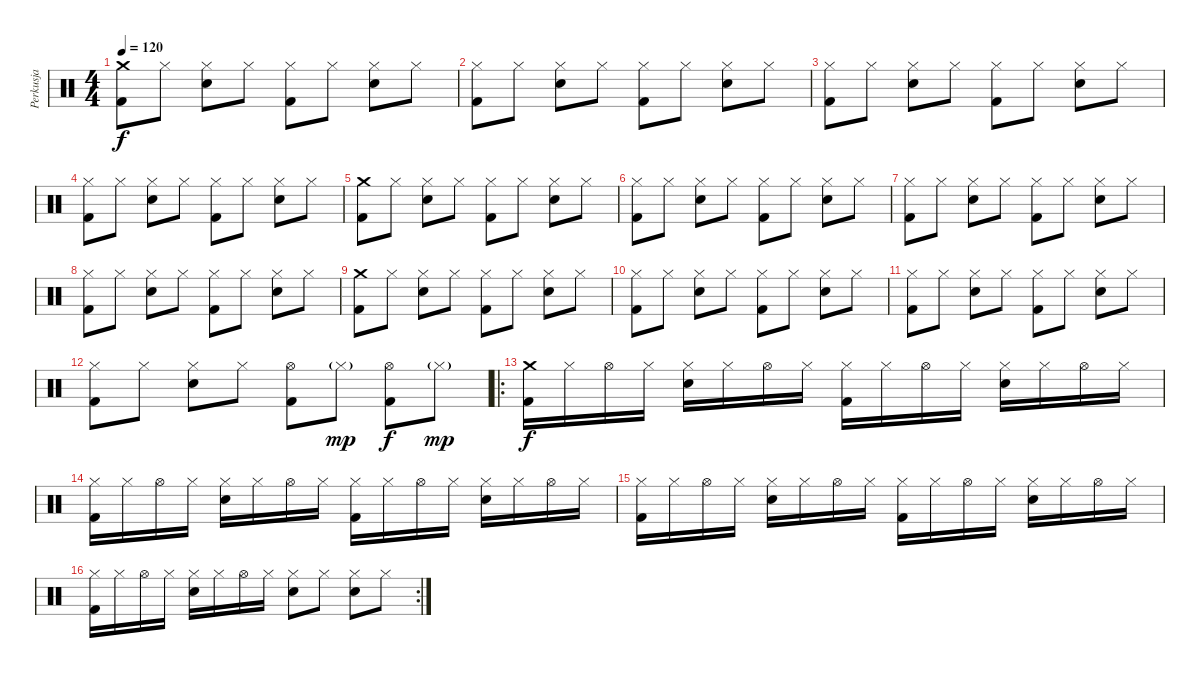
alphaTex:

\track ("Perkusja" "Perkusja") {instrument percussion}
\staff {score}
\articulation defaults
\ts (4 4)
\tempo 120
\clef neutral
\ks c
("Crash medium (hit)" "Kick (hit) 2").8{dy f} "Hi-Hat (closed)".8 ("Hi-Hat (closed)" "Snare (hit) 2").8 "Hi-Hat (closed)".8 ("Hi-Hat (closed)" "Kick (hit) 2").8 "Hi-Hat (closed)".8 ("Hi-Hat (closed)" "Snare (hit) 2").8 "Hi-Hat (closed)".8 |
("Hi-Hat (closed)" "Kick (hit) 2").8 "Hi-Hat (closed)".8 ("Hi-Hat (closed)" "Snare (hit) 2").8 "Hi-Hat (closed)".8 ("Hi-Hat (closed)" "Kick (hit) 2").8 "Hi-Hat (closed)".8 ("Hi-Hat (closed)" "Snare (hit) 2").8 "Hi-Hat (closed)".8 |
("Hi-Hat (closed)" "Kick (hit) 2").8 "Hi-Hat (closed)".8 ("Hi-Hat (closed)" "Snare (hit) 2").8 "Hi-Hat (closed)".8 ("Hi-Hat (closed)" "Kick (hit) 2").8 "Hi-Hat (closed)".8 ("Hi-Hat (closed)" "Snare (hit) 2").8 "Hi-Hat (closed)".8 |
("Hi-Hat (closed)" "Kick (hit) 2").8 "Hi-Hat (closed)".8 ("Hi-Hat (closed)" "Snare (hit) 2").8 "Hi-Hat (closed)".8 ("Hi-Hat (closed)" "Kick (hit) 2").8 "Hi-Hat (closed)".8 ("Hi-Hat (closed)" "Snare (hit) 2").8 "Hi-Hat (closed)".8 |
("Crash medium (hit)" "Kick (hit) 2").8 "Hi-Hat (closed)".8 ("Hi-Hat (closed)" "Snare (hit) 2").8 "Hi-Hat (closed)".8 ("Hi-Hat (closed)" "Kick (hit) 2").8 "Hi-Hat (closed)".8 ("Hi-Hat (closed)" "Snare (hit) 2").8 "Hi-Hat (closed)".8 |
("Hi-Hat (closed)" "Kick (hit) 2").8 "Hi-Hat (closed)".8 ("Hi-Hat (closed)" "Snare (hit) 2").8 "Hi-Hat (closed)".8 ("Hi-Hat (closed)" "Kick (hit) 2").8 "Hi-Hat (closed)".8 ("Hi-Hat (closed)" "Snare (hit) 2").8 "Hi-Hat (closed)".8 |
("Hi-Hat (closed)" "Kick (hit) 2").8 "Hi-Hat (closed)".8 ("Hi-Hat (closed)" "Snare (hit) 2").8 "Hi-Hat (closed)".8 ("Hi-Hat (closed)" "Kick (hit) 2").8 "Hi-Hat (closed)".8 ("Hi-Hat (closed)" "Snare (hit) 2").8 "Hi-Hat (closed)".8 |
("Hi-Hat (closed)" "Kick (hit) 2").8 "Hi-Hat (closed)".8 ("Hi-Hat (closed)" "Snare (hit) 2").8 "Hi-Hat (closed)".8 ("Hi-Hat (closed)" "Kick (hit) 2").8 "Hi-Hat (closed)".8 ("Hi-Hat (closed)" "Snare (hit) 2").8 "Hi-Hat (closed)".8 |
("Crash medium (hit)" "Kick (hit) 2").8 "Hi-Hat (closed)".8 ("Hi-Hat (closed)" "Snare (hit) 2").8 "Hi-Hat (closed)".8 ("Hi-Hat (closed)" "Kick (hit) 2").8 "Hi-Hat (closed)".8 ("Hi-Hat (closed)" "Snare (hit) 2").8 "Hi-Hat (closed)".8 |
("Hi-Hat (closed)" "Kick (hit) 2").8 "Hi-Hat (closed)".8 ("Hi-Hat (closed)" "Snare (hit) 2").8 "Hi-Hat (closed)".8 ("Hi-Hat (closed)" "Kick (hit) 2").8 "Hi-Hat (closed)".8 ("Hi-Hat (closed)" "Snare (hit) 2").8 "Hi-Hat (closed)".8 |
("Hi-Hat (closed)" "Kick (hit) 2").8 "Hi-Hat (closed)".8 ("Hi-Hat (closed)" "Snare (hit) 2").8 "Hi-Hat (closed)".8 ("Hi-Hat (closed)" "Kick (hit) 2").8 "Hi-Hat (closed)".8 ("Hi-Hat (closed)" "Snare (hit) 2").8 "Hi-Hat (closed)".8 |
("Hi-Hat (closed)" "Kick (hit) 2").8 "Hi-Hat (closed)".8 ("Hi-Hat (closed)" "Snare (hit) 2").8 "Hi-Hat (closed)".8 ("Hi-Hat (open)" "Kick (hit) 2").8 "Hi-Hat (closed)"{g}.8{dy mp} ("Hi-Hat (open)" "Kick (hit) 2").8{dy f} "Hi-Hat (closed)"{g}.8{dy mp} |
\ro
("Crash medium (hit)" "Kick (hit) 2").16{dy f} "Hi-Hat (closed)".16 "Hi-Hat (open)".16 "Hi-Hat (closed)".16 ("Hi-Hat (closed)" "Snare (hit) 2").16 "Hi-Hat (closed)".16 "Hi-Hat (open)".16 "Hi-Hat (closed)".16 ("Hi-Hat (closed)" "Kick (hit) 2").16 "Hi-Hat (closed)".16 "Hi-Hat (open)".16 "Hi-Hat (closed)".16 ("Hi-Hat (closed)" "Snare (hit) 2").16 "Hi-Hat (closed)".16 "Hi-Hat (open)".16 "Hi-Hat (closed)".16 |
("Hi-Hat (closed)" "Kick (hit) 2").16 "Hi-Hat (closed)".16 "Hi-Hat (open)".16 "Hi-Hat (closed)".16 ("Hi-Hat (closed)" "Snare (hit) 2").16 "Hi-Hat (closed)".16 "Hi-Hat (open)".16 "Hi-Hat (closed)".16 ("Hi-Hat (closed)" "Kick (hit) 2").16 "Hi-Hat (closed)".16 "Hi-Hat (open)".16 "Hi-Hat (closed)".16 ("Hi-Hat (closed)" "Snare (hit) 2").16 "Hi-Hat (closed)".16 "Hi-Hat (open)".16 "Hi-Hat (closed)".16 |
("Hi-Hat (closed)" "Kick (hit) 2").16 "Hi-Hat (closed)".16 "Hi-Hat (open)".16 "Hi-Hat (closed)".16 ("Hi-Hat (closed)" "Snare (hit) 2").16 "Hi-Hat (closed)".16 "Hi-Hat (open)".16 "Hi-Hat (closed)".16 ("Hi-Hat (closed)" "Kick (hit) 2").16 "Hi-Hat (closed)".16 "Hi-Hat (open)".16 "Hi-Hat (closed)".16 ("Hi-Hat (closed)" "Snare (hit) 2").16 "Hi-Hat (closed)".16 "Hi-Hat (open)".16 "Hi-Hat (closed)".16 |
\rc 2
("Hi-Hat (closed)" "Kick (hit) 2").16 "Hi-Hat (closed)".16 "Hi-Hat (open)".16 "Hi-Hat (closed)".16 ("Hi-Hat (closed)" "Snare (hit) 2").16 "Hi-Hat (closed)".16 "Hi-Hat (open)".16 "Hi-Hat (closed)".16 ("Hi-Hat (closed)" "Snare (hit) 2").8 "Hi-Hat (closed)".8 ("Hi-Hat (closed)" "Snare (hit) 2").8 "Hi-Hat (closed)".8
